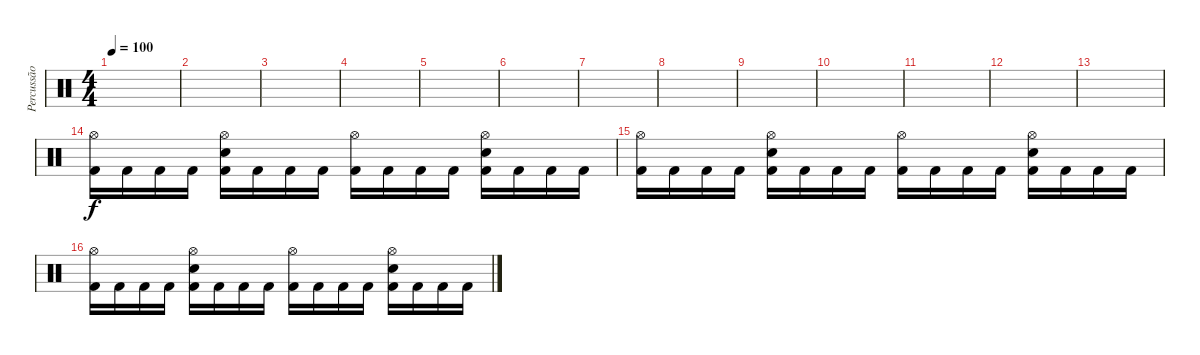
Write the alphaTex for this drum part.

\track ("Percussão" "Percussão") {instrument percussion}
\staff {score}
\articulation defaults
\ts (4 4)
\tempo 100
\clef neutral
\ks c
|
|
|
|
|
|
|
|
|
|
|
|
|
("Hi-Hat (open)" "Kick (hit) 2").16 "Kick (hit) 2".16 "Kick (hit) 2".16 "Kick (hit) 2".16 ("Hi-Hat (open)" "Electric Snare (hit)" "Kick (hit) 2").16 "Kick (hit) 2".16 "Kick (hit) 2".16 "Kick (hit) 2".16 ("Hi-Hat (open)" "Kick (hit) 2").16 "Kick (hit) 2".16 "Kick (hit) 2".16 "Kick (hit) 2".16 ("Hi-Hat (open)" "Electric Snare (hit)" "Kick (hit) 2").16 "Kick (hit) 2".16 "Kick (hit) 2".16 "Kick (hit) 2".16 |
("Hi-Hat (open)" "Kick (hit) 2").16 "Kick (hit) 2".16 "Kick (hit) 2".16 "Kick (hit) 2".16 ("Hi-Hat (open)" "Electric Snare (hit)" "Kick (hit) 2").16 "Kick (hit) 2".16 "Kick (hit) 2".16 "Kick (hit) 2".16 ("Hi-Hat (open)" "Kick (hit) 2").16 "Kick (hit) 2".16 "Kick (hit) 2".16 "Kick (hit) 2".16 ("Hi-Hat (open)" "Electric Snare (hit)" "Kick (hit) 2").16 "Kick (hit) 2".16 "Kick (hit) 2".16 "Kick (hit) 2".16 |
("Hi-Hat (open)" "Kick (hit) 2").16 "Kick (hit) 2".16 "Kick (hit) 2".16 "Kick (hit) 2".16 ("Hi-Hat (open)" "Electric Snare (hit)" "Kick (hit) 2").16 "Kick (hit) 2".16 "Kick (hit) 2".16 "Kick (hit) 2".16 ("Hi-Hat (open)" "Kick (hit) 2").16 "Kick (hit) 2".16 "Kick (hit) 2".16 "Kick (hit) 2".16 ("Hi-Hat (open)" "Electric Snare (hit)" "Kick (hit) 2").16 "Kick (hit) 2".16 "Kick (hit) 2".16 "Kick (hit) 2".16
